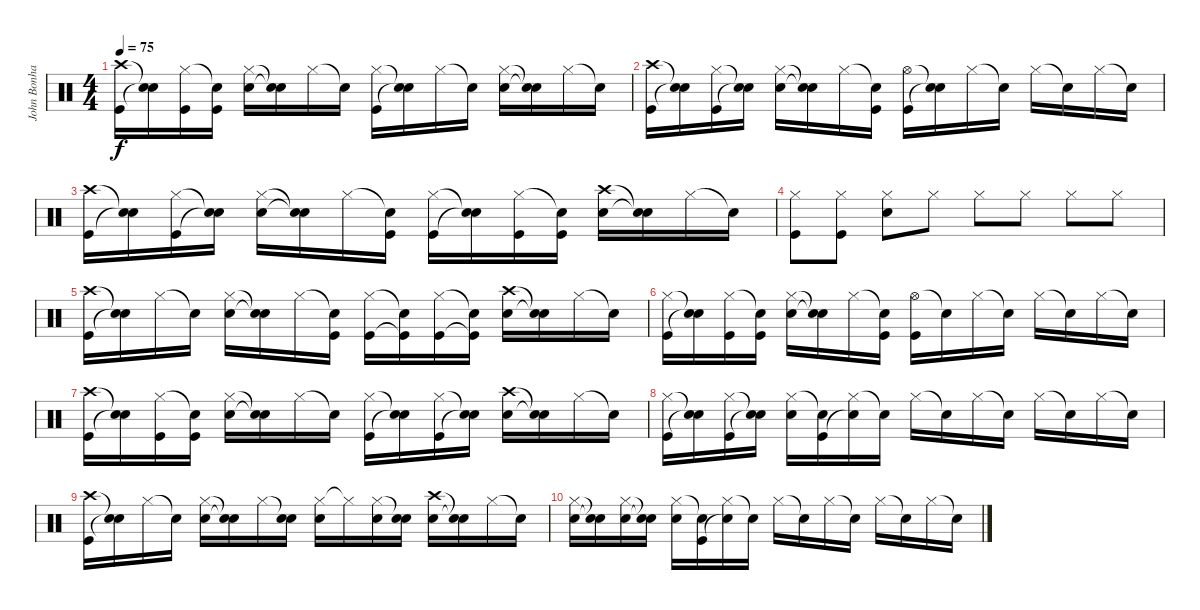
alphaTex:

\track ("John Bonham (Drums)" "John Bonha") {instrument percussion}
\staff {score}
\articulation defaults
\ts (4 4)
\tempo 75
\clef neutral
\ks c
("Crash high (hit)" "Kick (hit)").16{dy f} ("Snare (hit)"{t} "Snare (hit)"{t}).16 ("Hi-Hat (closed)" "Kick (hit)").16 ("Snare (hit)"{t} "Kick (hit)").16 ("Hi-Hat (closed)" "Snare (hit) 2").16 ("Snare (hit)"{t} "Snare (hit)"{t}).16 "Hi-Hat (closed)".16 "Snare (hit)"{t}.16 ("Hi-Hat (closed)" "Kick (hit)").16 ("Snare (hit)"{t} "Snare (hit)"{t}).16 "Hi-Hat (closed)".16 "Snare (hit)"{t}.16 ("Hi-Hat (closed)" "Snare (hit) 2").16 ("Snare (hit)"{t} "Snare (hit)"{t}).16 "Hi-Hat (closed)".16 "Snare (hit)"{t}.16 |
("Crash high (hit)" "Kick (hit)").16 ("Snare (hit)"{t} "Snare (hit)"{t}).16 ("Hi-Hat (closed)" "Kick (hit)").16 ("Snare (hit)"{t} "Snare (hit)"{t}).16 ("Hi-Hat (closed)" "Snare (hit) 2").16 ("Snare (hit)"{t} "Snare (hit)"{t}).16 "Hi-Hat (closed)".16 ("Snare (hit)"{t} "Kick (hit)").16 ("Hi-Hat (open)" "Kick (hit)").16 ("Snare (hit)"{t} "Snare (hit)"{t}).16 "Hi-Hat (closed)".16 "Snare (hit)"{t}.16 "Hi-Hat (closed)".16 "Snare (hit)"{t}.16 "Hi-Hat (closed)".16 "Snare (hit)"{t}.16 |
("Crash high (hit)" "Kick (hit)").16 ("Snare (hit)"{t} "Snare (hit)"{t}).16 ("Hi-Hat (closed)" "Kick (hit)").16 ("Snare (hit)"{t} "Snare (hit)"{t}).16 ("Hi-Hat (closed)" "Snare (hit) 2").16 ("Snare (hit)"{t} "Snare (hit)"{t}).16 "Hi-Hat (closed)".16 ("Snare (hit)"{t} "Kick (hit)").16 ("Hi-Hat (closed)" "Kick (hit)").16 ("Snare (hit)"{t} "Snare (hit)"{t}).16 ("Hi-Hat (closed)" "Kick (hit)").16 ("Snare (hit)"{t} "Kick (hit)").16 ("Crash high (hit)" "Snare (hit) 2").16 ("Snare (hit)"{t} "Snare (hit)"{t}).16 "Hi-Hat (closed)".16 "Snare (hit)"{t}.16 |
("Hi-Hat (closed)" "Kick (hit)").8 ("Hi-Hat (closed)" "Kick (hit)").8 ("Hi-Hat (closed)" "Snare (hit) 2").8 "Hi-Hat (closed)".8 "Hi-Hat (closed)".8 "Hi-Hat (closed)".8 "Hi-Hat (closed)".8 "Hi-Hat (closed)".8 |
("Crash high (hit)" "Kick (hit)").16 ("Snare (hit)"{t} "Snare (hit)"{t}).16 "Hi-Hat (closed)".16 "Snare (hit)"{t}.16 ("Hi-Hat (closed)" "Snare (hit) 2").16 ("Snare (hit)"{t} "Snare (hit)"{t}).16 "Hi-Hat (closed)".16 ("Snare (hit)"{t} "Kick (hit)").16 ("Hi-Hat (closed)" "Kick (hit)").16 ("Snare (hit)"{t} "Kick (hit)"{t}).16 ("Hi-Hat (closed)" "Kick (hit)").16 ("Snare (hit)"{t} "Kick (hit)"{t}).16 ("Crash high (hit)" "Snare (hit) 2").16 ("Snare (hit)"{t} "Snare (hit)"{t}).16 "Hi-Hat (closed)".16 "Snare (hit)"{t}.16 |
("Hi-Hat (closed)" "Kick (hit)").16 ("Snare (hit)"{t} "Snare (hit)"{t}).16 ("Hi-Hat (closed)" "Kick (hit)").16 ("Snare (hit)"{t} "Kick (hit)").16 ("Hi-Hat (closed)" "Snare (hit) 2").16 ("Snare (hit)"{t} "Snare (hit)"{t}).16 "Hi-Hat (closed)".16 ("Snare (hit)"{t} "Kick (hit)").16 ("Hi-Hat (open)" "Kick (hit)").16 "Snare (hit)"{t}.16 "Hi-Hat (closed)".16 "Snare (hit)"{t}.16 "Hi-Hat (closed)".16 "Snare (hit)"{t}.16 "Hi-Hat (closed)".16 "Snare (hit)"{t}.16 |
("Crash high (hit)" "Kick (hit)").16 ("Snare (hit)"{t} "Snare (hit)"{t}).16 ("Hi-Hat (closed)" "Kick (hit)").16 ("Snare (hit)"{t} "Kick (hit)").16 ("Hi-Hat (closed)" "Snare (hit) 2").16 ("Snare (hit)"{t} "Snare (hit)"{t}).16 "Hi-Hat (closed)".16 "Snare (hit)"{t}.16 ("Hi-Hat (closed)" "Kick (hit)").16 ("Snare (hit)"{t} "Snare (hit)"{t}).16 ("Hi-Hat (closed)" "Kick (hit)").16 ("Snare (hit)"{t} "Snare (hit)"{t}).16 ("Crash high (hit)" "Snare (hit) 2").16 ("Snare (hit)"{t} "Snare (hit)"{t}).16 "Hi-Hat (closed)".16 "Snare (hit)"{t}.16 |
("Hi-Hat (closed)" "Kick (hit)").16 ("Snare (hit)"{t} "Snare (hit)"{t}).16 ("Hi-Hat (closed)" "Kick (hit)").16 ("Snare (hit)"{t} "Snare (hit)"{t}).16 ("Hi-Hat (closed)" "Snare (hit) 2").16 ("Snare (hit)"{t} "Kick (hit)").16 ("Hi-Hat (closed)" "Snare (hit)"{t}).16 "Snare (hit)"{t}.16 "Hi-Hat (closed)".16 "Snare (hit)"{t}.16 "Hi-Hat (closed)".16 "Snare (hit)"{t}.16 "Hi-Hat (closed)".16 "Snare (hit)"{t}.16 "Hi-Hat (closed)".16 "Snare (hit)"{t}.16 |
("Crash high (hit)" "Kick (hit)").16 ("Snare (hit)"{t} "Snare (hit)"{t}).16 "Hi-Hat (closed)".16 "Snare (hit)"{t}.16 ("Hi-Hat (closed)" "Snare (hit) 2").16 ("Snare (hit)"{t} "Snare (hit)"{t}).16 "Hi-Hat (closed)".16 ("Snare (hit)"{t} "Snare (hit) 2").16 ("Hi-Hat (closed)" "Snare (hit) 2").16 "Hi-Hat (closed)"{t}.16 ("Hi-Hat (closed)" "Snare (hit) 2").16 ("Snare (hit)"{t} "Snare (hit) 2").16 ("Crash high (hit)" "Snare (hit) 2").16 ("Snare (hit)"{t} "Snare (hit)"{t}).16 "Hi-Hat (closed)".16 "Snare (hit)"{t}.16 |
("Hi-Hat (closed)" "Snare (hit) 2").16 ("Snare (hit)"{t} "Snare (hit)"{t}).16 ("Hi-Hat (closed)" "Snare (hit) 2").16 ("Snare (hit)"{t} "Snare (hit)"{t}).16 ("Hi-Hat (closed)" "Snare (hit) 2").16 ("Snare (hit)"{t} "Kick (hit)").16 ("Hi-Hat (closed)" "Snare (hit)"{t}).16 "Snare (hit)"{t}.16 "Hi-Hat (closed)".16 "Snare (hit)"{t}.16 "Hi-Hat (closed)".16 "Snare (hit)"{t}.16 "Hi-Hat (closed)".16 "Snare (hit)"{t}.16 "Hi-Hat (closed)".16 "Snare (hit)"{t}.16
